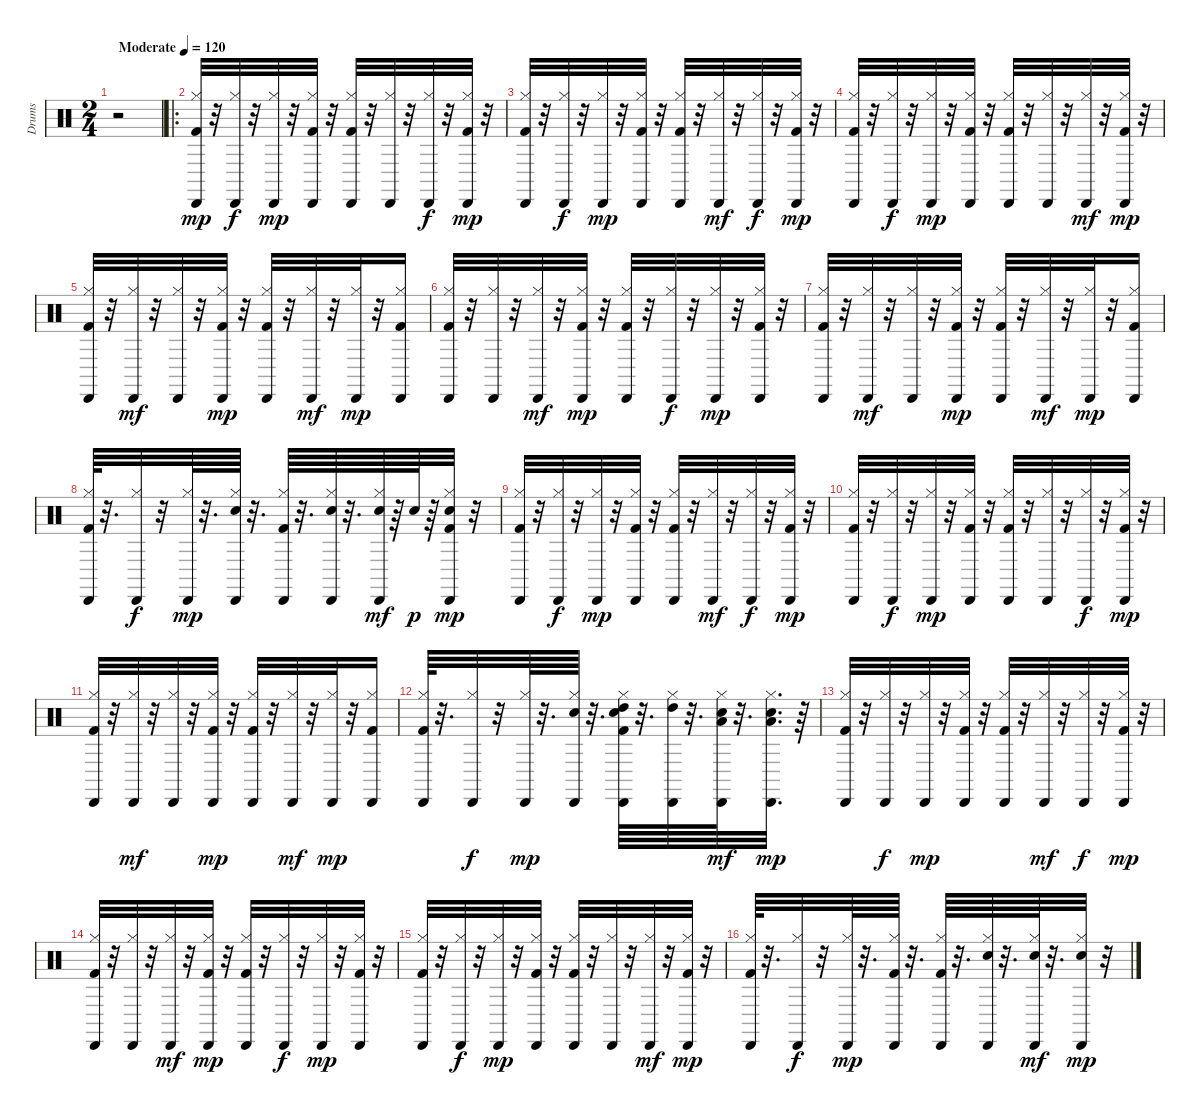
\track ("Drums" "Drums") {instrument percussion}
\staff {score}
\articulation defaults
\ts (2 4)
\tempo (120 "Moderate")
\clef neutral
\ks c
r.2{dy mp} |
\ro
("Kick (hit) 2" "Hi-Hat (closed)" "Cabasa (hit)").32 r.32 ("Hi-Hat (closed)" "Cabasa (hit)").32{dy f} r.32 ("Hi-Hat (closed)" "Cabasa (hit)").32{dy mp} r.32 ("Kick (hit) 2" "Hi-Hat (closed)" "Cabasa (hit)").32 r.32 ("Kick (hit) 2" "Hi-Hat (closed)" "Cabasa (hit)").32 r.32 ("Hi-Hat (closed)" "Cabasa (hit)").32 r.32 ("Hi-Hat (closed)" "Cabasa (hit)").32{dy f} r.32 ("Kick (hit) 2" "Hi-Hat (closed)" "Cabasa (hit)").32{dy mp} r.32 |
("Kick (hit) 2" "Hi-Hat (closed)" "Cabasa (hit)").32 r.32 ("Hi-Hat (closed)" "Cabasa (hit)").32{dy f} r.32 ("Hi-Hat (closed)" "Cabasa (hit)").32{dy mp} r.32 ("Kick (hit) 2" "Hi-Hat (closed)" "Cabasa (hit)").32 r.32 ("Kick (hit) 2" "Hi-Hat (closed)" "Cabasa (hit)").32 r.32 ("Hi-Hat (closed)" "Cabasa (hit)").32{dy mf} r.32 ("Hi-Hat (closed)" "Cabasa (hit)").32{dy f} r.32 ("Kick (hit) 2" "Hi-Hat (closed)" "Cabasa (hit)").32{dy mp} r.32 |
("Kick (hit) 2" "Hi-Hat (closed)" "Cabasa (hit)").32 r.32 ("Hi-Hat (closed)" "Cabasa (hit)").32{dy f} r.32 ("Hi-Hat (closed)" "Cabasa (hit)").32{dy mp} r.32 ("Kick (hit) 2" "Hi-Hat (closed)" "Cabasa (hit)").32 r.32 ("Kick (hit) 2" "Hi-Hat (closed)" "Cabasa (hit)").32 r.32 ("Hi-Hat (closed)" "Cabasa (hit)").32 r.32 ("Hi-Hat (closed)" "Cabasa (hit)").32{dy mf} r.32 ("Kick (hit) 2" "Hi-Hat (closed)" "Cabasa (hit)").32{dy mp} r.32 |
("Kick (hit) 2" "Hi-Hat (closed)" "Cabasa (hit)").32 r.32 ("Hi-Hat (closed)" "Cabasa (hit)").32{dy mf} r.32 ("Hi-Hat (closed)" "Cabasa (hit)").32 r.32 ("Kick (hit) 2" "Hi-Hat (closed)" "Cabasa (hit)").32{dy mp} r.32 ("Kick (hit) 2" "Hi-Hat (closed)" "Cabasa (hit)").32 r.32 ("Hi-Hat (closed)" "Cabasa (hit)").32{dy mf} r.32 ("Hi-Hat (closed)" "Cabasa (hit)").32{dy mp} r.32 ("Kick (hit) 2" "Hi-Hat (closed)" "Cabasa (hit)").16 |
("Kick (hit) 2" "Hi-Hat (closed)" "Cabasa (hit)").32 r.32 ("Hi-Hat (closed)" "Cabasa (hit)").32 r.32 ("Hi-Hat (closed)" "Cabasa (hit)").32{dy mf} r.32 ("Kick (hit) 2" "Hi-Hat (closed)" "Cabasa (hit)").32{dy mp} r.32 ("Kick (hit) 2" "Hi-Hat (closed)" "Cabasa (hit)").32 r.32 ("Hi-Hat (closed)" "Cabasa (hit)").32{dy f} r.32 ("Hi-Hat (closed)" "Cabasa (hit)").32{dy mp} r.32 ("Kick (hit) 2" "Hi-Hat (closed)" "Cabasa (hit)").32 r.32 |
("Kick (hit) 2" "Hi-Hat (closed)" "Cabasa (hit)").32 r.32 ("Hi-Hat (closed)" "Cabasa (hit)").32{dy mf} r.32 ("Hi-Hat (closed)" "Cabasa (hit)").32 r.32 ("Kick (hit) 2" "Hi-Hat (closed)" "Cabasa (hit)").32{dy mp} r.32 ("Kick (hit) 2" "Hi-Hat (closed)" "Cabasa (hit)").32 r.32 ("Hi-Hat (closed)" "Cabasa (hit)").32{dy mf} r.32 ("Hi-Hat (closed)" "Cabasa (hit)").32{dy mp} r.32 ("Kick (hit) 2" "Hi-Hat (closed)" "Cabasa (hit)").16 |
("Kick (hit) 2" "Hi-Hat (closed)" "Cabasa (hit)").64 r.32{d} ("Hi-Hat (closed)" "Cabasa (hit)").32{dy f} r.32 ("Hi-Hat (closed)" "Cabasa (hit)").64{dy mp} r.32{d} ("Electric Snare (hit)" "Hi-Hat (closed)" "Cabasa (hit)").64 r.32{d} ("Kick (hit) 2" "Hi-Hat (closed)" "Cabasa (hit)").64 r.32{d} ("Electric Snare (hit)" "Hi-Hat (closed)" "Cabasa (hit)").64 r.32{d} ("Electric Snare (hit)" "Hi-Hat (closed)" "Cabasa (hit)").64{dy mf} r.64 "Snare (hit) 2".64{dy p} r.64 ("Electric Snare (hit)" "Kick (hit) 2" "Hi-Hat (closed)" "Cabasa (hit)").32{dy mp} r.32 |
("Kick (hit) 2" "Hi-Hat (closed)" "Cabasa (hit)").32 r.32 ("Hi-Hat (closed)" "Cabasa (hit)").32{dy f} r.32 ("Hi-Hat (closed)" "Cabasa (hit)").32{dy mp} r.32 ("Kick (hit) 2" "Hi-Hat (closed)" "Cabasa (hit)").32 r.32 ("Kick (hit) 2" "Hi-Hat (closed)" "Cabasa (hit)").32 r.32 ("Hi-Hat (closed)" "Cabasa (hit)").32{dy mf} r.32 ("Hi-Hat (closed)" "Cabasa (hit)").32{dy f} r.32 ("Kick (hit) 2" "Hi-Hat (closed)" "Cabasa (hit)").32{dy mp} r.32 |
("Kick (hit) 2" "Hi-Hat (closed)" "Cabasa (hit)").32 r.32 ("Hi-Hat (closed)" "Cabasa (hit)").32{dy f} r.32 ("Hi-Hat (closed)" "Cabasa (hit)").32{dy mp} r.32 ("Kick (hit) 2" "Hi-Hat (closed)" "Cabasa (hit)").32 r.32 ("Kick (hit) 2" "Hi-Hat (closed)" "Cabasa (hit)").32 r.32 ("Hi-Hat (closed)" "Cabasa (hit)").32 r.32 ("Hi-Hat (closed)" "Cabasa (hit)").32{dy f} r.32 ("Kick (hit) 2" "Hi-Hat (closed)" "Cabasa (hit)").32{dy mp} r.32 |
("Kick (hit) 2" "Hi-Hat (closed)" "Cabasa (hit)").32 r.32 ("Hi-Hat (closed)" "Cabasa (hit)").32{dy mf} r.32 ("Hi-Hat (closed)" "Cabasa (hit)").32 r.32 ("Kick (hit) 2" "Hi-Hat (closed)" "Cabasa (hit)").32{dy mp} r.32 ("Kick (hit) 2" "Hi-Hat (closed)" "Cabasa (hit)").32 r.32 ("Hi-Hat (closed)" "Cabasa (hit)").32{dy mf} r.32 ("Hi-Hat (closed)" "Cabasa (hit)").32{dy mp} r.32 ("Kick (hit) 2" "Hi-Hat (closed)" "Cabasa (hit)").16 |
("Kick (hit) 2" "Hi-Hat (closed)" "Cabasa (hit)").64 r.32{d} ("Hi-Hat (closed)" "Cabasa (hit)").32{dy f} r.32 ("Hi-Hat (closed)" "Cabasa (hit)").64{dy mp} r.32{d} ("Electric Snare (hit)" "Hi-Hat (closed)" "Cabasa (hit)").64 r.32{d} ("High Tom (hit)" "Electric Snare (hit)" "Kick (hit) 2" "Hi-Hat (closed)" "Cabasa (hit)").64 r.32{d} ("High Tom (hit)" "Hi-Hat (closed)" "Cabasa (hit)").64 r.32{d} ("Low Tom (hit)" "Electric Snare (hit)" "Hi-Hat (closed)" "Cabasa (hit)").64{dy mf} r.32{d} ("Low Tom (hit)" "Electric Snare (hit)" "Hi-Hat (closed)" "Cabasa (hit)").32{d dy mp} r.64 |
("Kick (hit) 2" "Hi-Hat (closed)" "Cabasa (hit)").32 r.32 ("Hi-Hat (closed)" "Cabasa (hit)").32{dy f} r.32 ("Hi-Hat (closed)" "Cabasa (hit)").32{dy mp} r.32 ("Kick (hit) 2" "Hi-Hat (closed)" "Cabasa (hit)").32 r.32 ("Kick (hit) 2" "Hi-Hat (closed)" "Cabasa (hit)").32 r.32 ("Hi-Hat (closed)" "Cabasa (hit)").32{dy mf} r.32 ("Hi-Hat (closed)" "Cabasa (hit)").32{dy f} r.32 ("Kick (hit) 2" "Hi-Hat (closed)" "Cabasa (hit)").32{dy mp} r.32 |
("Kick (hit) 2" "Hi-Hat (closed)" "Cabasa (hit)").32 r.32 ("Hi-Hat (closed)" "Cabasa (hit)").32 r.32 ("Hi-Hat (closed)" "Cabasa (hit)").32{dy mf} r.32 ("Kick (hit) 2" "Hi-Hat (closed)" "Cabasa (hit)").32{dy mp} r.32 ("Kick (hit) 2" "Hi-Hat (closed)" "Cabasa (hit)").32 r.32 ("Hi-Hat (closed)" "Cabasa (hit)").32{dy f} r.32 ("Hi-Hat (closed)" "Cabasa (hit)").32{dy mp} r.32 ("Kick (hit) 2" "Hi-Hat (closed)" "Cabasa (hit)").32 r.32 |
("Kick (hit) 2" "Hi-Hat (closed)" "Cabasa (hit)").32 r.32 ("Hi-Hat (closed)" "Cabasa (hit)").32{dy f} r.32 ("Hi-Hat (closed)" "Cabasa (hit)").32{dy mp} r.32 ("Kick (hit) 2" "Hi-Hat (closed)" "Cabasa (hit)").32 r.32 ("Kick (hit) 2" "Hi-Hat (closed)" "Cabasa (hit)").32 r.32 ("Hi-Hat (closed)" "Cabasa (hit)").32 r.32 ("Hi-Hat (closed)" "Cabasa (hit)").32{dy mf} r.32 ("Kick (hit) 2" "Hi-Hat (closed)" "Cabasa (hit)").32{dy mp} r.32 |
("Kick (hit) 2" "Hi-Hat (closed)" "Cabasa (hit)").64 r.32{d} ("Hi-Hat (closed)" "Cabasa (hit)").32{dy f} r.32 ("Hi-Hat (closed)" "Cabasa (hit)").64{dy mp} r.32{d} ("Kick (hit) 2" "Hi-Hat (closed)" "Cabasa (hit)").64 r.32{d} ("Kick (hit) 2" "Hi-Hat (closed)" "Cabasa (hit)").64 r.32{d} ("Electric Snare (hit)" "Hi-Hat (closed)" "Cabasa (hit)").64 r.32{d} ("Electric Snare (hit)" "Hi-Hat (closed)" "Cabasa (hit)").64{dy mf} r.32{d} ("Electric Snare (hit)" "Hi-Hat (closed)" "Cabasa (hit)").32{dy mp} r.32
